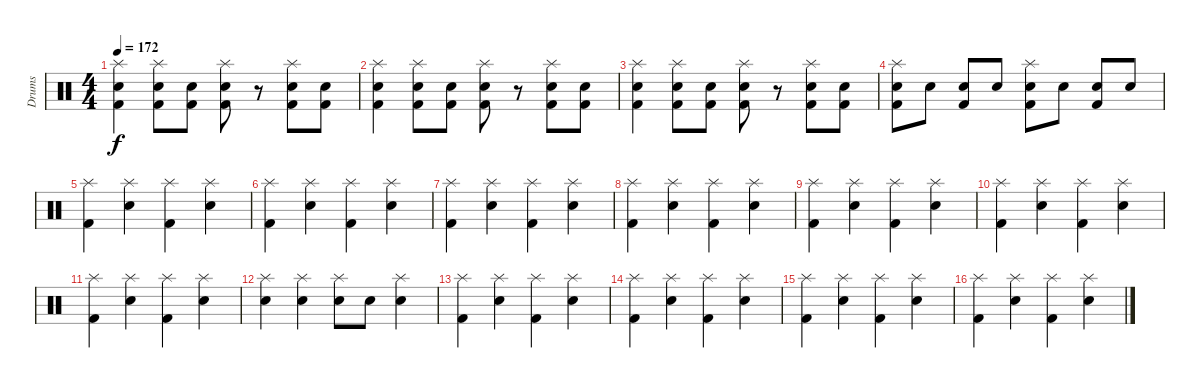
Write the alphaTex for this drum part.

\track ("Drums" "Drums") {instrument percussion}
\staff {score}
\articulation defaults
\ts (4 4)
\tempo 172
\clef neutral
\ks c
("Splash (hit)" "Kick (hit) 2" "Electric Snare (hit)").4{dy f} ("Splash (hit)" "Kick (hit) 2" "Electric Snare (hit)").8 ("Kick (hit) 2" "Electric Snare (hit)").8 ("Splash (hit)" "Kick (hit) 2" "Electric Snare (hit)").8 r.8 ("Splash (hit)" "Kick (hit) 2" "Electric Snare (hit)").8 ("Kick (hit) 2" "Electric Snare (hit)").8 |
("Splash (hit)" "Kick (hit) 2" "Electric Snare (hit)").4 ("Splash (hit)" "Kick (hit) 2" "Electric Snare (hit)").8 ("Kick (hit) 2" "Electric Snare (hit)").8 ("Splash (hit)" "Kick (hit) 2" "Electric Snare (hit)").8 r.8 ("Splash (hit)" "Kick (hit) 2" "Electric Snare (hit)").8 ("Kick (hit) 2" "Electric Snare (hit)").8 |
("Splash (hit)" "Kick (hit) 2" "Electric Snare (hit)").4 ("Splash (hit)" "Kick (hit) 2" "Electric Snare (hit)").8 ("Kick (hit) 2" "Electric Snare (hit)").8 ("Splash (hit)" "Kick (hit) 2" "Electric Snare (hit)").8 r.8 ("Splash (hit)" "Kick (hit) 2" "Electric Snare (hit)").8 ("Kick (hit) 2" "Electric Snare (hit)").8 |
("Splash (hit)" "Snare (hit) 2" "Kick (hit) 2").8 "Snare (hit) 2".8 ("Snare (hit) 2" "Kick (hit) 2").8 "Snare (hit) 2".8 ("Splash (hit)" "Snare (hit) 2" "Kick (hit) 2").8 "Snare (hit) 2".8 ("Snare (hit) 2" "Kick (hit) 2").8 "Snare (hit) 2".8 |
("Splash (hit)" "Kick (hit) 2").4 ("Splash (hit)" "Snare (hit) 2").4 ("Splash (hit)" "Kick (hit) 2").4 ("Splash (hit)" "Snare (hit) 2").4 |
("Splash (hit)" "Kick (hit) 2").4 ("Splash (hit)" "Snare (hit) 2").4 ("Splash (hit)" "Kick (hit) 2").4 ("Splash (hit)" "Snare (hit) 2").4 |
("Splash (hit)" "Kick (hit) 2").4 ("Splash (hit)" "Snare (hit) 2").4 ("Splash (hit)" "Kick (hit) 2").4 ("Splash (hit)" "Snare (hit) 2").4 |
("Splash (hit)" "Kick (hit) 2").4 ("Splash (hit)" "Snare (hit) 2").4 ("Splash (hit)" "Kick (hit) 2").4 ("Splash (hit)" "Snare (hit) 2").4 |
("Splash (hit)" "Kick (hit) 2").4 ("Splash (hit)" "Snare (hit) 2").4 ("Splash (hit)" "Kick (hit) 2").4 ("Splash (hit)" "Snare (hit) 2").4 |
("Splash (hit)" "Kick (hit) 2").4 ("Splash (hit)" "Snare (hit) 2").4 ("Splash (hit)" "Kick (hit) 2").4 ("Splash (hit)" "Snare (hit) 2").4 |
("Splash (hit)" "Kick (hit) 2").4 ("Splash (hit)" "Snare (hit) 2").4 ("Splash (hit)" "Kick (hit) 2").4 ("Splash (hit)" "Snare (hit) 2").4 |
("Splash (hit)" "Snare (hit) 2").4 ("Splash (hit)" "Snare (hit) 2").4 ("Splash (hit)" "Snare (hit) 2").8 "Snare (hit) 2".8 ("Splash (hit)" "Snare (hit) 2").4 |
("Splash (hit)" "Kick (hit) 2").4 ("Splash (hit)" "Snare (hit) 2").4 ("Splash (hit)" "Kick (hit) 2").4 ("Splash (hit)" "Snare (hit) 2").4 |
("Splash (hit)" "Kick (hit) 2").4 ("Splash (hit)" "Snare (hit) 2").4 ("Splash (hit)" "Kick (hit) 2").4 ("Splash (hit)" "Snare (hit) 2").4 |
("Splash (hit)" "Kick (hit) 2").4 ("Splash (hit)" "Snare (hit) 2").4 ("Splash (hit)" "Kick (hit) 2").4 ("Splash (hit)" "Snare (hit) 2").4 |
("Splash (hit)" "Kick (hit) 2").4 ("Splash (hit)" "Snare (hit) 2").4 ("Splash (hit)" "Kick (hit) 2").4 ("Splash (hit)" "Snare (hit) 2").4
